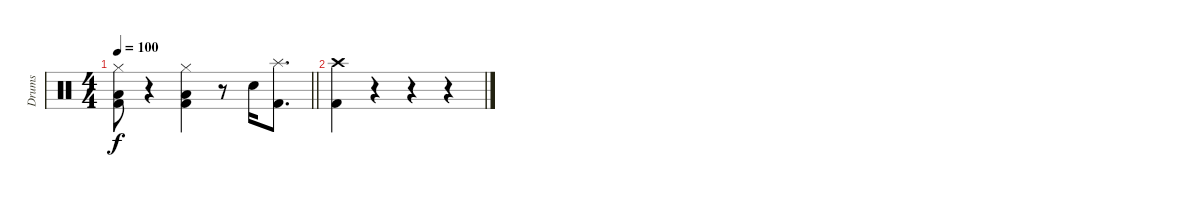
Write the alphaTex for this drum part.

\track ("Drums" "Drums") {instrument percussion}
\staff {score}
\articulation defaults
\ts (4 4)
\tempo 100
\clef neutral
\barLineRight lightlight
\ks c
("Hi-Hat (closed)" "Low Floor Tom (hit)" "Kick (hit) 2").8{dy f} r.4 ("Hi-Hat (closed)" "Low Floor Tom (hit)" "Kick (hit) 2").4 r.8 "Snare (hit) 2".16 ("Splash (hit)" "Kick (hit) 2").8{d} |
("Crash high (hit)" "Kick (hit) 2").4 r.4 r.4 r.4
